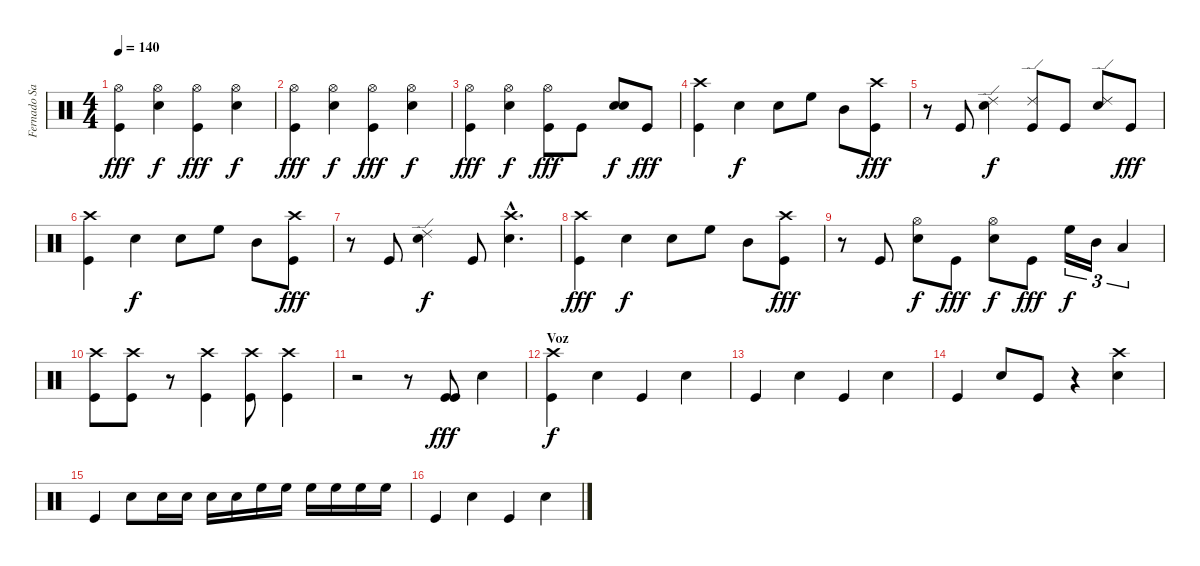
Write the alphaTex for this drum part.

\track ("Fernado Sanchez" "Fernado Sa") {instrument percussion}
\staff {score}
\articulation defaults
\ts (4 4)
\tempo 140
\clef neutral
\ks c
("Hi-Hat (open)" "Kick (hit)").4{dy fff} ("Hi-Hat (open)" "Electric Snare (hit)").4{dy f} ("Hi-Hat (open)" "Kick (hit)").4{dy fff} ("Hi-Hat (open)" "Electric Snare (hit)").4{dy f} |
("Hi-Hat (open)" "Kick (hit)").4{dy fff} ("Hi-Hat (open)" "Electric Snare (hit)").4{dy f} ("Hi-Hat (open)" "Kick (hit)").4{dy fff} ("Hi-Hat (open)" "Electric Snare (hit)").4{dy f} |
("Hi-Hat (open)" "Kick (hit)").4{dy fff} ("Hi-Hat (open)" "Electric Snare (hit)").4{dy f} ("Hi-Hat (open)" "Kick (hit)").8{dy fff} "Kick (hit)".8 ("Electric Snare (hit)" "Electric Snare (hit)").8{bd 480 dy f} "Kick (hit)".8{dy fff} |
("Crash high (hit)" "Kick (hit)").4 "Electric Snare (hit)".4{dy f} "Electric Snare (hit)".8 "High Floor Tom (hit)".8 "Mid Tom (hit)".8 ("Crash high (hit)" "Kick (hit)").8{dy fff} |
r.8 "Kick (hit)".8 ("Ride (edge) 2" "Electric Snare (hit)").4{dy f} ("Ride (edge) 2" "Kick (hit)").8 "Kick (hit)".8 ("Ride (edge) 2" "Electric Snare (hit)").8 "Kick (hit)".8{dy fff} |
("Crash high (hit)" "Kick (hit)").4 "Electric Snare (hit)".4{dy f} "Electric Snare (hit)".8 "High Floor Tom (hit)".8 "Mid Tom (hit)".8 ("Crash high (hit)" "Kick (hit)").8{dy fff} |
r.8 "Kick (hit)".8 ("Ride (edge) 2" "Electric Snare (hit)").4{dy f} "Kick (hit)".8 ("Crash high (hit)"{hac} "Electric Snare (hit)"{hac}).4{d} |
("Crash high (hit)" "Kick (hit)").4{dy fff} "Electric Snare (hit)".4{dy f} "Electric Snare (hit)".8 "High Floor Tom (hit)".8 "Mid Tom (hit)".8 ("Crash high (hit)" "Kick (hit)").8{dy fff} |
r.8 "Kick (hit)".8 ("Hi-Hat (open)" "Electric Snare (hit)").8{dy f} "Kick (hit)".8{dy fff} ("Hi-Hat (open)" "Electric Snare (hit)").8{dy f} "Kick (hit)".8{dy fff} "High Floor Tom (hit)".16{tu (3 2) dy f} "Mid Tom (hit)".16{tu (3 2)} "Low Tom (hit)".4{tu (3 2)} |
("Crash high (hit)" "Kick (hit)").8 ("Crash high (hit)" "Kick (hit)").8 r.8 ("Crash high (hit)" "Kick (hit)").4 ("Crash high (hit)" "Kick (hit)").8 ("Crash high (hit)" "Kick (hit)").4 |
r.2 r.8 ("Kick (hit)" "Kick (hit)").8{dy fff} "Electric Snare (hit)".4 |
\section ("" "Voz")
("Crash high (hit)" "Kick (hit)").4{dy f} "Electric Snare (hit)".4 "Kick (hit)".4 "Electric Snare (hit)".4 |
"Kick (hit)".4 "Electric Snare (hit)".4 "Kick (hit)".4 "Electric Snare (hit)".4 |
"Kick (hit)".4 "Electric Snare (hit)".8 "Kick (hit)".8 r.4 ("Crash high (hit)" "Electric Snare (hit)").4 |
"Kick (hit)".4 "Electric Snare (hit)".8 "Electric Snare (hit)".16 "Electric Snare (hit)".16 "Electric Snare (hit)".16 "Electric Snare (hit)".16 "High Floor Tom (hit)".16 "High Floor Tom (hit)".16 "High Floor Tom (hit)".16 "High Floor Tom (hit)".16 "High Floor Tom (hit)".16 "High Floor Tom (hit)".16 |
"Kick (hit)".4 "Electric Snare (hit)".4 "Kick (hit)".4 "Electric Snare (hit)".4
